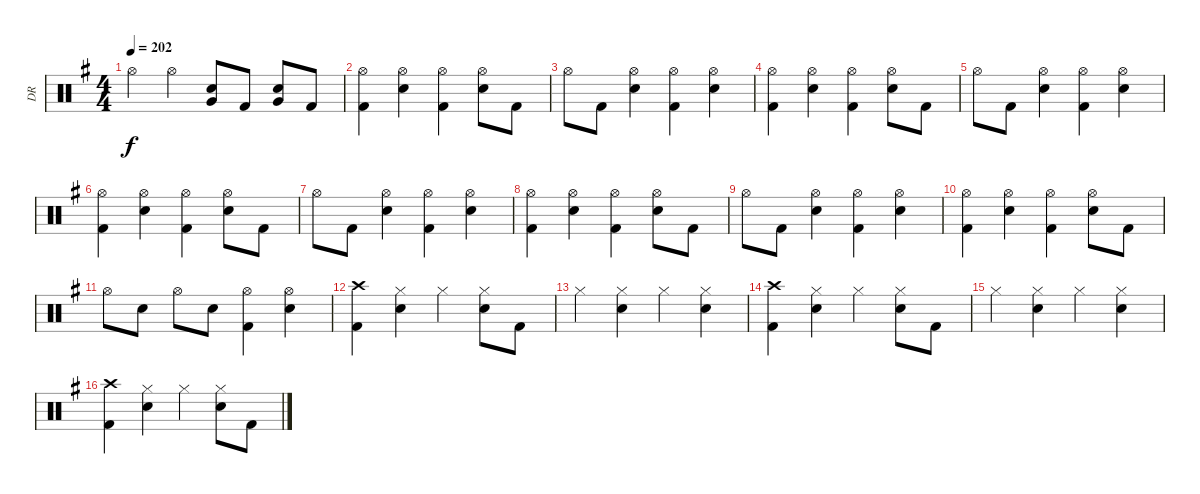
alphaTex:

\track ("DR" "DR") {instrument percussion}
\staff {score}
\articulation defaults
\ts (4 4)
\tempo 202
\clef neutral
\ks g "Hi-Hat (open)".4{dy f} "Hi-Hat (open)".4
("Very Low Tom (hit)" "Electric Snare (hit)").8 "Kick (hit) 2".8 ("Very Low Tom (hit)" "Electric Snare (hit)").8 "Kick (hit) 2".8 |
("Hi-Hat (open)" "Kick (hit) 2").4 ("Hi-Hat (open)" "Electric Snare (hit)").4 ("Hi-Hat (open)" "Kick (hit) 2").4 ("Hi-Hat (open)" "Electric Snare (hit)").8 "Kick (hit) 2".8 |
"Hi-Hat (open)".8 "Kick (hit) 2".8 ("Hi-Hat (open)" "Electric Snare (hit)").4 ("Hi-Hat (open)" "Kick (hit) 2").4 ("Hi-Hat (open)" "Electric Snare (hit)").4 |
("Hi-Hat (open)" "Kick (hit) 2").4 ("Hi-Hat (open)" "Electric Snare (hit)").4 ("Hi-Hat (open)" "Kick (hit) 2").4 ("Hi-Hat (open)" "Electric Snare (hit)").8 "Kick (hit) 2".8 |
"Hi-Hat (open)".8 "Kick (hit) 2".8 ("Hi-Hat (open)" "Electric Snare (hit)").4 ("Hi-Hat (open)" "Kick (hit) 2").4 ("Hi-Hat (open)" "Electric Snare (hit)").4 |
("Hi-Hat (open)" "Kick (hit) 2").4 ("Hi-Hat (open)" "Electric Snare (hit)").4 ("Hi-Hat (open)" "Kick (hit) 2").4 ("Hi-Hat (open)" "Electric Snare (hit)").8 "Kick (hit) 2".8 |
"Hi-Hat (open)".8 "Kick (hit) 2".8 ("Hi-Hat (open)" "Electric Snare (hit)").4 ("Hi-Hat (open)" "Kick (hit) 2").4 ("Hi-Hat (open)" "Electric Snare (hit)").4 |
("Hi-Hat (open)" "Kick (hit) 2").4 ("Hi-Hat (open)" "Electric Snare (hit)").4 ("Hi-Hat (open)" "Kick (hit) 2").4 ("Hi-Hat (open)" "Electric Snare (hit)").8 "Kick (hit) 2".8 |
"Hi-Hat (open)".8 "Kick (hit) 2".8 ("Hi-Hat (open)" "Electric Snare (hit)").4 ("Hi-Hat (open)" "Kick (hit) 2").4 ("Hi-Hat (open)" "Electric Snare (hit)").4 |
("Hi-Hat (open)" "Kick (hit) 2").4 ("Hi-Hat (open)" "Electric Snare (hit)").4 ("Hi-Hat (open)" "Kick (hit) 2").4 ("Hi-Hat (open)" "Electric Snare (hit)").8 "Kick (hit) 2".8 |
"Hi-Hat (open)".8 "Electric Snare (hit)".8 "Hi-Hat (open)".8 "Electric Snare (hit)".8 ("Hi-Hat (open)" "Kick (hit) 2").4 ("Hi-Hat (open)" "Electric Snare (hit)").4 |
("Crash high (hit)" "Kick (hit) 2").4 ("Hi-Hat (closed)" "Electric Snare (hit)").4 "Hi-Hat (closed)".4 ("Hi-Hat (closed)" "Electric Snare (hit)").8 "Kick (hit) 2".8 |
"Hi-Hat (closed)".4 ("Hi-Hat (closed)" "Electric Snare (hit)").4 "Hi-Hat (closed)".4 ("Hi-Hat (closed)" "Electric Snare (hit)").4 |
("Crash high (hit)" "Kick (hit) 2").4 ("Hi-Hat (closed)" "Electric Snare (hit)").4 "Hi-Hat (closed)".4 ("Hi-Hat (closed)" "Electric Snare (hit)").8 "Kick (hit) 2".8 |
"Hi-Hat (closed)".4 ("Hi-Hat (closed)" "Electric Snare (hit)").4 "Hi-Hat (closed)".4 ("Hi-Hat (closed)" "Electric Snare (hit)").4 |
("Crash high (hit)" "Kick (hit) 2").4 ("Hi-Hat (closed)" "Electric Snare (hit)").4 "Hi-Hat (closed)".4 ("Hi-Hat (closed)" "Electric Snare (hit)").8 "Kick (hit) 2".8
